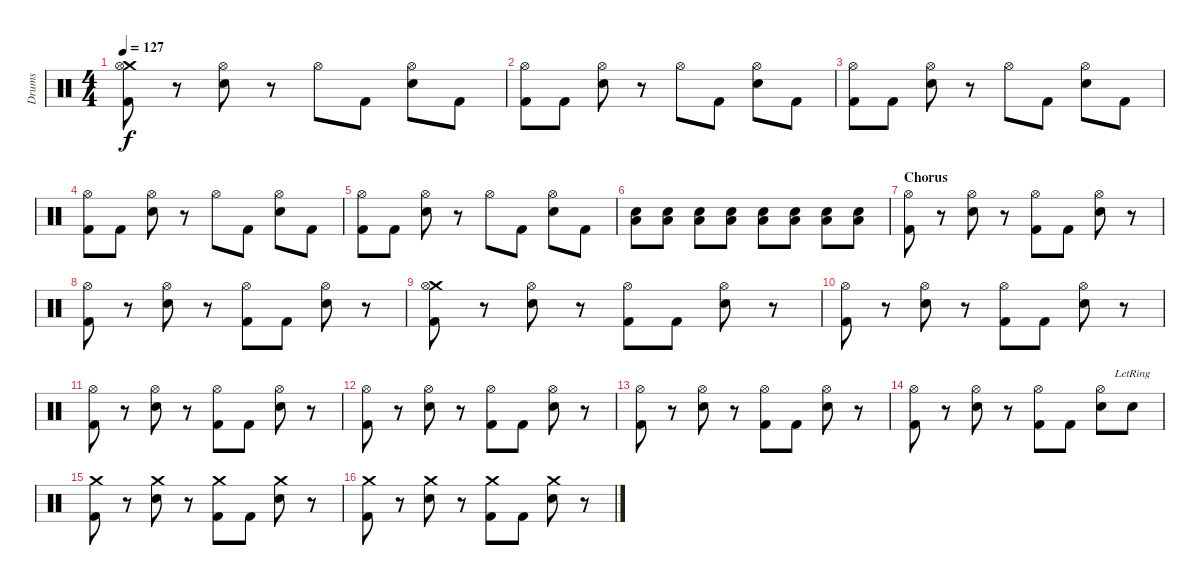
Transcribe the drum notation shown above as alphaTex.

\track ("Drums" "Drums") {instrument percussion}
\staff {score}
\articulation defaults
\ts (4 4)
\tempo 127
\clef neutral
\ks c
("Crash medium (hit)" "Hi-Hat (open)" "Kick (hit) 2").8{dy f} r.8 ("Hi-Hat (open)" "Electric Snare (hit)").8 r.8 "Hi-Hat (open)".8 "Kick (hit) 2".8 ("Hi-Hat (open)" "Electric Snare (hit)").8 "Kick (hit) 2".8 |
("Hi-Hat (open)" "Kick (hit) 2").8 "Kick (hit) 2".8 ("Hi-Hat (open)" "Electric Snare (hit)").8 r.8 "Hi-Hat (open)".8 "Kick (hit) 2".8 ("Hi-Hat (open)" "Electric Snare (hit)").8 "Kick (hit) 2".8 |
("Hi-Hat (open)" "Kick (hit) 2").8 "Kick (hit) 2".8 ("Hi-Hat (open)" "Electric Snare (hit)").8 r.8 "Hi-Hat (open)".8 "Kick (hit) 2".8 ("Hi-Hat (open)" "Electric Snare (hit)").8 "Kick (hit) 2".8 |
("Hi-Hat (open)" "Kick (hit) 2").8 "Kick (hit) 2".8 ("Hi-Hat (open)" "Electric Snare (hit)").8 r.8 "Hi-Hat (open)".8 "Kick (hit) 2".8 ("Hi-Hat (open)" "Electric Snare (hit)").8 "Kick (hit) 2".8 |
("Hi-Hat (open)" "Kick (hit) 2").8 "Kick (hit) 2".8 ("Hi-Hat (open)" "Electric Snare (hit)").8 r.8 "Hi-Hat (open)".8 "Kick (hit) 2".8 ("Hi-Hat (open)" "Electric Snare (hit)").8 "Kick (hit) 2".8 |
("Low Floor Tom (hit)" "Electric Snare (hit)").8 ("Low Floor Tom (hit)" "Electric Snare (hit)").8 ("Low Floor Tom (hit)" "Electric Snare (hit)").8 ("Low Floor Tom (hit)" "Electric Snare (hit)").8 ("Low Floor Tom (hit)" "Electric Snare (hit)").8 ("Low Floor Tom (hit)" "Electric Snare (hit)").8 ("Low Floor Tom (hit)" "Electric Snare (hit)").8 ("Low Floor Tom (hit)" "Electric Snare (hit)").8 |
\section ("" "Chorus")
("Hi-Hat (open)" "Kick (hit) 2").8 r.8 ("Hi-Hat (open)" "Electric Snare (hit)").8 r.8 ("Hi-Hat (open)" "Kick (hit) 2").8 "Kick (hit) 2".8 ("Hi-Hat (open)" "Electric Snare (hit)").8 r.8 |
("Hi-Hat (open)" "Kick (hit) 2").8 r.8 ("Hi-Hat (open)" "Electric Snare (hit)").8 r.8 ("Hi-Hat (open)" "Kick (hit) 2").8 "Kick (hit) 2".8 ("Hi-Hat (open)" "Electric Snare (hit)").8 r.8 |
("Crash medium (hit)" "Hi-Hat (open)" "Kick (hit) 2").8 r.8 ("Hi-Hat (open)" "Electric Snare (hit)").8 r.8 ("Hi-Hat (open)" "Kick (hit) 2").8 "Kick (hit) 2".8 ("Hi-Hat (open)" "Electric Snare (hit)").8 r.8 |
("Hi-Hat (open)" "Kick (hit) 2").8 r.8 ("Hi-Hat (open)" "Electric Snare (hit)").8 r.8 ("Hi-Hat (open)" "Kick (hit) 2").8 "Kick (hit) 2".8 ("Hi-Hat (open)" "Electric Snare (hit)").8 r.8 |
("Hi-Hat (open)" "Kick (hit) 2").8 r.8 ("Hi-Hat (open)" "Electric Snare (hit)").8 r.8 ("Hi-Hat (open)" "Kick (hit) 2").8 "Kick (hit) 2".8 ("Hi-Hat (open)" "Electric Snare (hit)").8 r.8 |
("Hi-Hat (open)" "Kick (hit) 2").8 r.8 ("Hi-Hat (open)" "Electric Snare (hit)").8 r.8 ("Hi-Hat (open)" "Kick (hit) 2").8 "Kick (hit) 2".8 ("Hi-Hat (open)" "Electric Snare (hit)").8 r.8 |
("Hi-Hat (open)" "Kick (hit) 2").8 r.8 ("Hi-Hat (open)" "Electric Snare (hit)").8 r.8 ("Hi-Hat (open)" "Kick (hit) 2").8 "Kick (hit) 2".8 ("Hi-Hat (open)" "Electric Snare (hit)").8 r.8 |
("Hi-Hat (open)" "Kick (hit) 2").8 r.8 ("Hi-Hat (open)" "Electric Snare (hit)").8 r.8 ("Hi-Hat (open)" "Kick (hit) 2").8 "Kick (hit) 2".8 ("Hi-Hat (open)" "Electric Snare (hit)").8 "Electric Snare (hit)"{lr}.8 |
("Crash medium (hit)" "Kick (hit) 2").8 r.8 ("Crash medium (hit)" "Electric Snare (hit)").8 r.8 ("Crash medium (hit)" "Kick (hit) 2").8 "Kick (hit) 2".8 ("Crash medium (hit)" "Electric Snare (hit)").8 r.8 |
("Crash medium (hit)" "Kick (hit) 2").8 r.8 ("Crash medium (hit)" "Electric Snare (hit)").8 r.8 ("Crash medium (hit)" "Kick (hit) 2").8 "Kick (hit) 2".8 ("Crash medium (hit)" "Electric Snare (hit)").8 r.8
